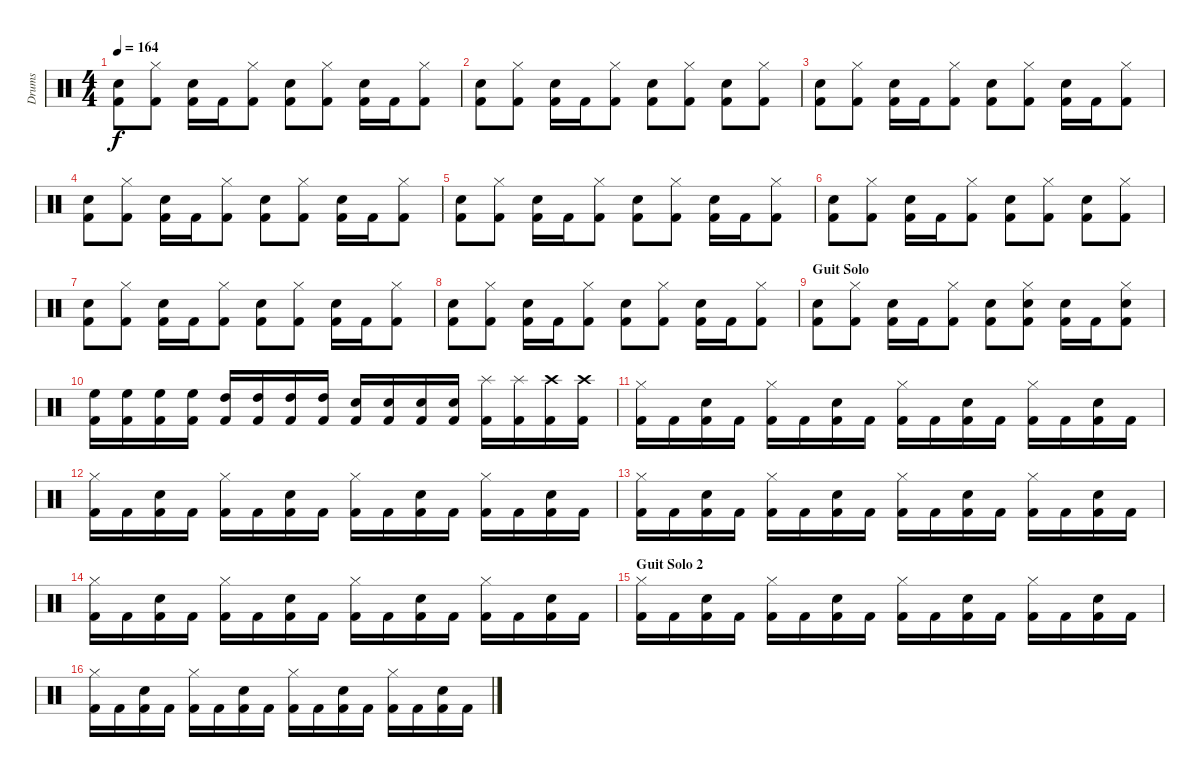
\track ("Drums" "Drums") {instrument percussion}
\staff {score}
\articulation defaults
\ts (4 4)
\tempo 164
\clef neutral
\ks c
("Snare (hit) 2" "Kick (hit) 2").8{dy f} ("Hi-Hat (closed)" "Kick (hit) 2").8 ("Snare (hit) 2" "Kick (hit) 2").16 "Kick (hit) 2".16 ("Hi-Hat (closed)" "Kick (hit) 2").8 ("Snare (hit) 2" "Kick (hit) 2").8 ("Hi-Hat (closed)" "Kick (hit) 2").8 ("Snare (hit) 2" "Kick (hit) 2").16 "Kick (hit) 2".16 ("Hi-Hat (closed)" "Kick (hit) 2").8 |
("Snare (hit) 2" "Kick (hit) 2").8 ("Hi-Hat (closed)" "Kick (hit) 2").8 ("Snare (hit) 2" "Kick (hit) 2").16 "Kick (hit) 2".16 ("Hi-Hat (closed)" "Kick (hit) 2").8 ("Snare (hit) 2" "Kick (hit) 2").8 ("Hi-Hat (closed)" "Kick (hit) 2").8 ("Snare (hit) 2" "Kick (hit) 2").8 ("Hi-Hat (closed)" "Kick (hit) 2").8 |
("Snare (hit) 2" "Kick (hit) 2").8 ("Hi-Hat (closed)" "Kick (hit) 2").8 ("Snare (hit) 2" "Kick (hit) 2").16 "Kick (hit) 2".16 ("Hi-Hat (closed)" "Kick (hit) 2").8 ("Snare (hit) 2" "Kick (hit) 2").8 ("Hi-Hat (closed)" "Kick (hit) 2").8 ("Snare (hit) 2" "Kick (hit) 2").16 "Kick (hit) 2".16 ("Hi-Hat (closed)" "Kick (hit) 2").8 |
("Snare (hit) 2" "Kick (hit) 2").8 ("Hi-Hat (closed)" "Kick (hit) 2").8 ("Snare (hit) 2" "Kick (hit) 2").16 "Kick (hit) 2".16 ("Hi-Hat (closed)" "Kick (hit) 2").8 ("Snare (hit) 2" "Kick (hit) 2").8 ("Hi-Hat (closed)" "Kick (hit) 2").8 ("Snare (hit) 2" "Kick (hit) 2").16 "Kick (hit) 2".16 ("Hi-Hat (closed)" "Kick (hit) 2").8 |
("Snare (hit) 2" "Kick (hit) 2").8 ("Hi-Hat (closed)" "Kick (hit) 2").8 ("Snare (hit) 2" "Kick (hit) 2").16 "Kick (hit) 2".16 ("Hi-Hat (closed)" "Kick (hit) 2").8 ("Snare (hit) 2" "Kick (hit) 2").8 ("Hi-Hat (closed)" "Kick (hit) 2").8 ("Snare (hit) 2" "Kick (hit) 2").16 "Kick (hit) 2".16 ("Hi-Hat (closed)" "Kick (hit) 2").8 |
("Snare (hit) 2" "Kick (hit) 2").8 ("Hi-Hat (closed)" "Kick (hit) 2").8 ("Snare (hit) 2" "Kick (hit) 2").16 "Kick (hit) 2".16 ("Hi-Hat (closed)" "Kick (hit) 2").8 ("Snare (hit) 2" "Kick (hit) 2").8 ("Hi-Hat (closed)" "Kick (hit) 2").8 ("Snare (hit) 2" "Kick (hit) 2").8 ("Hi-Hat (closed)" "Kick (hit) 2").8 |
("Snare (hit) 2" "Kick (hit) 2").8 ("Hi-Hat (closed)" "Kick (hit) 2").8 ("Snare (hit) 2" "Kick (hit) 2").16 "Kick (hit) 2".16 ("Hi-Hat (closed)" "Kick (hit) 2").8 ("Snare (hit) 2" "Kick (hit) 2").8 ("Hi-Hat (closed)" "Kick (hit) 2").8 ("Snare (hit) 2" "Kick (hit) 2").16 "Kick (hit) 2".16 ("Hi-Hat (closed)" "Kick (hit) 2").8 |
("Snare (hit) 2" "Kick (hit) 2").8 ("Hi-Hat (closed)" "Kick (hit) 2").8 ("Snare (hit) 2" "Kick (hit) 2").16 "Kick (hit) 2".16 ("Hi-Hat (closed)" "Kick (hit) 2").8 ("Snare (hit) 2" "Kick (hit) 2").8 ("Hi-Hat (closed)" "Kick (hit) 2").8 ("Snare (hit) 2" "Kick (hit) 2").16 "Kick (hit) 2".16 ("Hi-Hat (closed)" "Kick (hit) 2").8 |
\section ("" "Guit Solo ")
("Snare (hit) 2" "Kick (hit) 2").8 ("Hi-Hat (closed)" "Kick (hit) 2").8 ("Snare (hit) 2" "Kick (hit) 2").16 "Kick (hit) 2".16 ("Hi-Hat (closed)" "Kick (hit) 2").8 ("Snare (hit) 2" "Kick (hit) 2").8 ("Hi-Hat (closed)" "Snare (hit) 2" "Kick (hit) 2").8 ("Snare (hit) 2" "Kick (hit) 2").16 "Kick (hit) 2".16 ("Hi-Hat (closed)" "Snare (hit) 2" "Kick (hit) 2").8 |
("High Floor Tom (hit)" "Kick (hit) 2").16 ("High Floor Tom (hit)" "Kick (hit) 2").16 ("High Floor Tom (hit)" "Kick (hit) 2").16 ("High Floor Tom (hit)" "Kick (hit) 2").16 ("High Tom (hit)" "Kick (hit) 2").16 ("High Tom (hit)" "Kick (hit) 2").16 ("High Tom (hit)" "Kick (hit) 2").16 ("High Tom (hit)" "Kick (hit) 2").16 ("Snare (hit) 2" "Kick (hit) 2").16 ("Snare (hit) 2" "Kick (hit) 2").16 ("Snare (hit) 2" "Kick (hit) 2").16 ("Snare (hit) 2" "Kick (hit) 2").16 ("Splash (hit)" "Kick (hit) 2").16 ("Splash (hit)" "Kick (hit) 2").16 ("Crash high (hit)" "Kick (hit) 2").16 ("Crash high (hit)" "Kick (hit) 2").16 |
("Hi-Hat (closed)" "Kick (hit) 2").16 "Kick (hit) 2".16 ("Snare (hit) 2" "Kick (hit) 2").16 "Kick (hit) 2".16 ("Hi-Hat (closed)" "Kick (hit) 2").16 "Kick (hit) 2".16 ("Snare (hit) 2" "Kick (hit) 2").16 "Kick (hit) 2".16 ("Hi-Hat (closed)" "Kick (hit) 2").16 "Kick (hit) 2".16 ("Snare (hit) 2" "Kick (hit) 2").16 "Kick (hit) 2".16 ("Hi-Hat (closed)" "Kick (hit) 2").16 "Kick (hit) 2".16 ("Snare (hit) 2" "Kick (hit) 2").16 "Kick (hit) 2".16 |
("Hi-Hat (closed)" "Kick (hit) 2").16 "Kick (hit) 2".16 ("Snare (hit) 2" "Kick (hit) 2").16 "Kick (hit) 2".16 ("Hi-Hat (closed)" "Kick (hit) 2").16 "Kick (hit) 2".16 ("Snare (hit) 2" "Kick (hit) 2").16 "Kick (hit) 2".16 ("Hi-Hat (closed)" "Kick (hit) 2").16 "Kick (hit) 2".16 ("Snare (hit) 2" "Kick (hit) 2").16 "Kick (hit) 2".16 ("Hi-Hat (closed)" "Kick (hit) 2").16 "Kick (hit) 2".16 ("Snare (hit) 2" "Kick (hit) 2").16 "Kick (hit) 2".16 |
("Hi-Hat (closed)" "Kick (hit) 2").16 "Kick (hit) 2".16 ("Snare (hit) 2" "Kick (hit) 2").16 "Kick (hit) 2".16 ("Hi-Hat (closed)" "Kick (hit) 2").16 "Kick (hit) 2".16 ("Snare (hit) 2" "Kick (hit) 2").16 "Kick (hit) 2".16 ("Hi-Hat (closed)" "Kick (hit) 2").16 "Kick (hit) 2".16 ("Snare (hit) 2" "Kick (hit) 2").16 "Kick (hit) 2".16 ("Hi-Hat (closed)" "Kick (hit) 2").16 "Kick (hit) 2".16 ("Snare (hit) 2" "Kick (hit) 2").16 "Kick (hit) 2".16 |
("Hi-Hat (closed)" "Kick (hit) 2").16 "Kick (hit) 2".16 ("Snare (hit) 2" "Kick (hit) 2").16 "Kick (hit) 2".16 ("Hi-Hat (closed)" "Kick (hit) 2").16 "Kick (hit) 2".16 ("Snare (hit) 2" "Kick (hit) 2").16 "Kick (hit) 2".16 ("Hi-Hat (closed)" "Kick (hit) 2").16 "Kick (hit) 2".16 ("Snare (hit) 2" "Kick (hit) 2").16 "Kick (hit) 2".16 ("Hi-Hat (closed)" "Kick (hit) 2").16 "Kick (hit) 2".16 ("Snare (hit) 2" "Kick (hit) 2").16 "Kick (hit) 2".16 |
\section ("" "Guit Solo 2")
("Hi-Hat (closed)" "Kick (hit) 2").16 "Kick (hit) 2".16 ("Snare (hit) 2" "Kick (hit) 2").16 "Kick (hit) 2".16 ("Hi-Hat (closed)" "Kick (hit) 2").16 "Kick (hit) 2".16 ("Snare (hit) 2" "Kick (hit) 2").16 "Kick (hit) 2".16 ("Hi-Hat (closed)" "Kick (hit) 2").16 "Kick (hit) 2".16 ("Snare (hit) 2" "Kick (hit) 2").16 "Kick (hit) 2".16 ("Hi-Hat (closed)" "Kick (hit) 2").16 "Kick (hit) 2".16 ("Snare (hit) 2" "Kick (hit) 2").16 "Kick (hit) 2".16 |
("Hi-Hat (closed)" "Kick (hit) 2").16 "Kick (hit) 2".16 ("Snare (hit) 2" "Kick (hit) 2").16 "Kick (hit) 2".16 ("Hi-Hat (closed)" "Kick (hit) 2").16 "Kick (hit) 2".16 ("Snare (hit) 2" "Kick (hit) 2").16 "Kick (hit) 2".16 ("Hi-Hat (closed)" "Kick (hit) 2").16 "Kick (hit) 2".16 ("Snare (hit) 2" "Kick (hit) 2").16 "Kick (hit) 2".16 ("Hi-Hat (closed)" "Kick (hit) 2").16 "Kick (hit) 2".16 ("Snare (hit) 2" "Kick (hit) 2").16 "Kick (hit) 2".16
